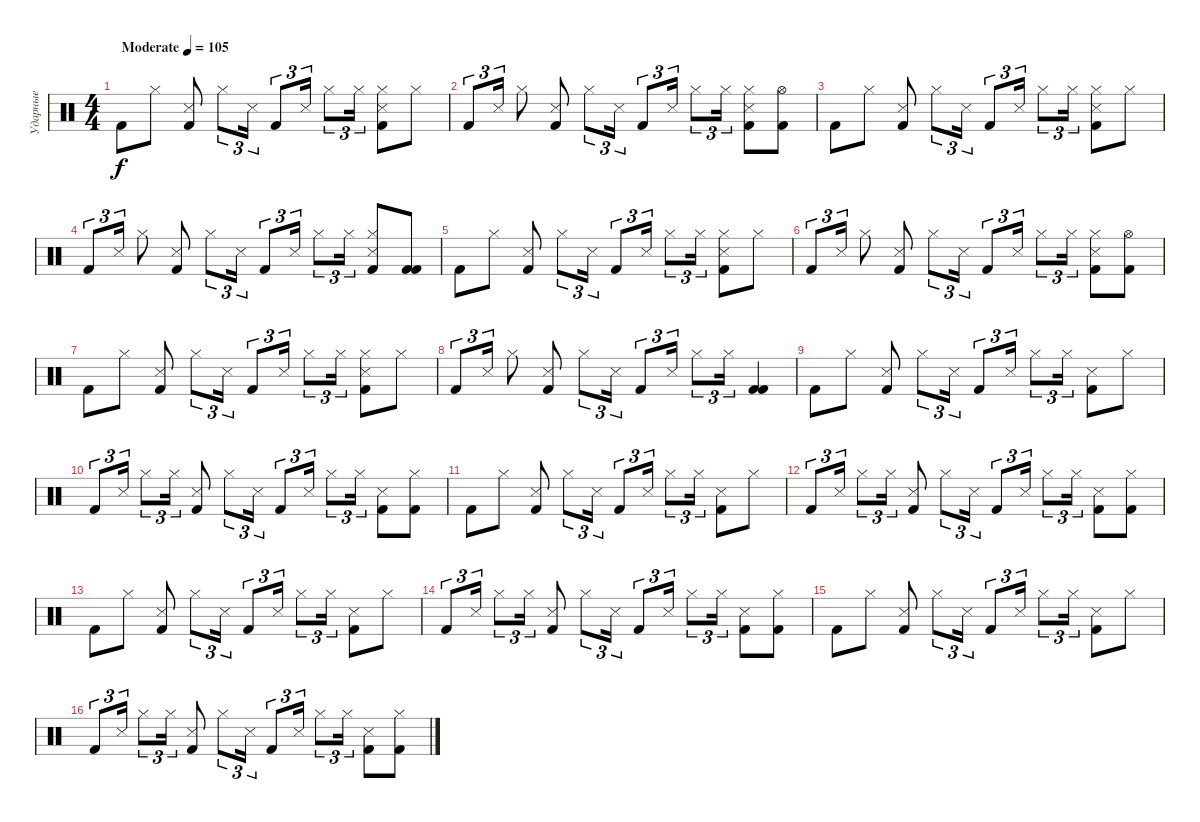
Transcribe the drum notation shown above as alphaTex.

\track ("Ударные" "Ударные") {instrument percussion}
\staff {score}
\articulation defaults
\ts (4 4)
\tempo (105 "Moderate")
\clef neutral
\ks c "Kick (hit) 2".8{dy f} "Hi-Hat (closed)".8
("Kick (hit) 2" "Snare (side stick) 3").8 "Hi-Hat (closed)".8{tu (3 2)} "Snare (side stick) 3".16{tu (3 2)} "Kick (hit) 2".8{tu (3 2)} "Snare (side stick) 3".16{tu (3 2)} "Hi-Hat (closed)".8{tu (3 2)} "Hi-Hat (closed)".16{tu (3 2)} ("Hi-Hat (closed)" "Kick (hit) 2" "Snare (side stick) 3").8 "Hi-Hat (closed)".8 |
"Kick (hit) 2".8{tu (3 2)} "Snare (side stick) 3".16{tu (3 2)} "Hi-Hat (closed)".8 ("Kick (hit) 2" "Snare (side stick) 3").8 "Hi-Hat (closed)".8{tu (3 2)} "Snare (side stick) 3".16{tu (3 2)} "Kick (hit) 2".8{tu (3 2)} "Snare (side stick) 3".16{tu (3 2)} "Hi-Hat (closed)".8{tu (3 2)} "Hi-Hat (closed)".16{tu (3 2)} ("Hi-Hat (closed)" "Kick (hit) 2" "Snare (side stick) 3").8 ("Hi-Hat (open)" "Kick (hit) 2").8 |
"Kick (hit) 2".8 "Hi-Hat (closed)".8 ("Kick (hit) 2" "Snare (side stick) 3").8 "Hi-Hat (closed)".8{tu (3 2)} "Snare (side stick) 3".16{tu (3 2)} "Kick (hit) 2".8{tu (3 2)} "Snare (side stick) 3".16{tu (3 2)} "Hi-Hat (closed)".8{tu (3 2)} "Hi-Hat (closed)".16{tu (3 2)} ("Hi-Hat (closed)" "Kick (hit) 2" "Snare (side stick) 3").8 "Hi-Hat (closed)".8 |
"Kick (hit) 2".8{tu (3 2)} "Snare (side stick) 3".16{tu (3 2)} "Hi-Hat (closed)".8 ("Kick (hit) 2" "Snare (side stick) 3").8 "Hi-Hat (closed)".8{tu (3 2)} "Snare (side stick) 3".16{tu (3 2)} "Kick (hit) 2".8{tu (3 2)} "Snare (side stick) 3".16{tu (3 2)} "Hi-Hat (closed)".8{tu (3 2)} "Hi-Hat (closed)".16{tu (3 2)} ("Hi-Hat (closed)" "Kick (hit) 2" "Snare (side stick) 3").8 ("Kick (hit) 2" "Kick (hit) 2").8 |
"Kick (hit) 2".8 "Hi-Hat (closed)".8 ("Kick (hit) 2" "Snare (side stick) 3").8 "Hi-Hat (closed)".8{tu (3 2)} "Snare (side stick) 3".16{tu (3 2)} "Kick (hit) 2".8{tu (3 2)} "Snare (side stick) 3".16{tu (3 2)} "Hi-Hat (closed)".8{tu (3 2)} "Hi-Hat (closed)".16{tu (3 2)} ("Hi-Hat (closed)" "Kick (hit) 2" "Snare (side stick) 3").8 "Hi-Hat (closed)".8 |
"Kick (hit) 2".8{tu (3 2)} "Snare (side stick) 3".16{tu (3 2)} "Hi-Hat (closed)".8 ("Kick (hit) 2" "Snare (side stick) 3").8 "Hi-Hat (closed)".8{tu (3 2)} "Snare (side stick) 3".16{tu (3 2)} "Kick (hit) 2".8{tu (3 2)} "Snare (side stick) 3".16{tu (3 2)} "Hi-Hat (closed)".8{tu (3 2)} "Hi-Hat (closed)".16{tu (3 2)} ("Hi-Hat (closed)" "Kick (hit) 2" "Snare (side stick) 3").8 ("Hi-Hat (open)" "Kick (hit) 2").8 |
"Kick (hit) 2".8 "Hi-Hat (closed)".8 ("Kick (hit) 2" "Snare (side stick) 3").8 "Hi-Hat (closed)".8{tu (3 2)} "Snare (side stick) 3".16{tu (3 2)} "Kick (hit) 2".8{tu (3 2)} "Snare (side stick) 3".16{tu (3 2)} "Hi-Hat (closed)".8{tu (3 2)} "Hi-Hat (closed)".16{tu (3 2)} ("Hi-Hat (closed)" "Kick (hit) 2" "Snare (side stick) 3").8 "Hi-Hat (closed)".8 |
"Kick (hit) 2".8{tu (3 2)} "Snare (side stick) 3".16{tu (3 2)} "Hi-Hat (closed)".8 ("Kick (hit) 2" "Snare (side stick) 3").8 "Hi-Hat (closed)".8{tu (3 2)} "Snare (side stick) 3".16{tu (3 2)} "Kick (hit) 2".8{tu (3 2)} "Snare (side stick) 3".16{tu (3 2)} "Hi-Hat (closed)".8{tu (3 2)} "Hi-Hat (closed)".16{tu (3 2)} ("Kick (hit) 2" "Kick (hit) 2").4 |
"Kick (hit) 2".8 "Hi-Hat (closed)".8 ("Kick (hit) 2" "Snare (side stick) 3").8 "Hi-Hat (closed)".8{tu (3 2)} "Snare (side stick) 3".16{tu (3 2)} "Kick (hit) 2".8{tu (3 2)} "Snare (side stick) 3".16{tu (3 2)} "Hi-Hat (closed)".8{tu (3 2)} "Hi-Hat (closed)".16{tu (3 2)} ("Kick (hit) 2" "Snare (side stick) 3").8 "Hi-Hat (closed)".8 |
"Kick (hit) 2".8{tu (3 2)} "Snare (side stick) 3".16{tu (3 2)} "Hi-Hat (closed)".8{tu (3 2)} "Hi-Hat (closed)".16{tu (3 2)} ("Kick (hit) 2" "Snare (side stick) 3").8 "Hi-Hat (closed)".8{tu (3 2)} "Snare (side stick) 3".16{tu (3 2)} "Kick (hit) 2".8{tu (3 2)} "Snare (side stick) 3".16{tu (3 2)} "Hi-Hat (closed)".8{tu (3 2)} "Hi-Hat (closed)".16{tu (3 2)} ("Kick (hit) 2" "Snare (side stick) 3").8 ("Hi-Hat (closed)" "Kick (hit) 2").8 |
"Kick (hit) 2".8 "Hi-Hat (closed)".8 ("Kick (hit) 2" "Snare (side stick) 3").8 "Hi-Hat (closed)".8{tu (3 2)} "Snare (side stick) 3".16{tu (3 2)} "Kick (hit) 2".8{tu (3 2)} "Snare (side stick) 3".16{tu (3 2)} "Hi-Hat (closed)".8{tu (3 2)} "Hi-Hat (closed)".16{tu (3 2)} ("Kick (hit) 2" "Snare (side stick) 3").8 "Hi-Hat (closed)".8 |
"Kick (hit) 2".8{tu (3 2)} "Snare (side stick) 3".16{tu (3 2)} "Hi-Hat (closed)".8{tu (3 2)} "Hi-Hat (closed)".16{tu (3 2)} ("Kick (hit) 2" "Snare (side stick) 3").8 "Hi-Hat (closed)".8{tu (3 2)} "Snare (side stick) 3".16{tu (3 2)} "Kick (hit) 2".8{tu (3 2)} "Snare (side stick) 3".16{tu (3 2)} "Hi-Hat (closed)".8{tu (3 2)} "Hi-Hat (closed)".16{tu (3 2)} ("Kick (hit) 2" "Snare (side stick) 3").8 ("Hi-Hat (closed)" "Kick (hit) 2").8 |
"Kick (hit) 2".8 "Hi-Hat (closed)".8 ("Kick (hit) 2" "Snare (side stick) 3").8 "Hi-Hat (closed)".8{tu (3 2)} "Snare (side stick) 3".16{tu (3 2)} "Kick (hit) 2".8{tu (3 2)} "Snare (side stick) 3".16{tu (3 2)} "Hi-Hat (closed)".8{tu (3 2)} "Hi-Hat (closed)".16{tu (3 2)} ("Kick (hit) 2" "Snare (side stick) 3").8 "Hi-Hat (closed)".8 |
"Kick (hit) 2".8{tu (3 2)} "Snare (side stick) 3".16{tu (3 2)} "Hi-Hat (closed)".8{tu (3 2)} "Hi-Hat (closed)".16{tu (3 2)} ("Kick (hit) 2" "Snare (side stick) 3").8 "Hi-Hat (closed)".8{tu (3 2)} "Snare (side stick) 3".16{tu (3 2)} "Kick (hit) 2".8{tu (3 2)} "Snare (side stick) 3".16{tu (3 2)} "Hi-Hat (closed)".8{tu (3 2)} "Hi-Hat (closed)".16{tu (3 2)} ("Kick (hit) 2" "Snare (side stick) 3").8 ("Hi-Hat (closed)" "Kick (hit) 2").8 |
"Kick (hit) 2".8 "Hi-Hat (closed)".8 ("Kick (hit) 2" "Snare (side stick) 3").8 "Hi-Hat (closed)".8{tu (3 2)} "Snare (side stick) 3".16{tu (3 2)} "Kick (hit) 2".8{tu (3 2)} "Snare (side stick) 3".16{tu (3 2)} "Hi-Hat (closed)".8{tu (3 2)} "Hi-Hat (closed)".16{tu (3 2)} ("Kick (hit) 2" "Snare (side stick) 3").8 "Hi-Hat (closed)".8 |
"Kick (hit) 2".8{tu (3 2)} "Snare (side stick) 3".16{tu (3 2)} "Hi-Hat (closed)".8{tu (3 2)} "Hi-Hat (closed)".16{tu (3 2)} ("Kick (hit) 2" "Snare (side stick) 3").8 "Hi-Hat (closed)".8{tu (3 2)} "Snare (side stick) 3".16{tu (3 2)} "Kick (hit) 2".8{tu (3 2)} "Snare (side stick) 3".16{tu (3 2)} "Hi-Hat (closed)".8{tu (3 2)} "Hi-Hat (closed)".16{tu (3 2)} ("Kick (hit) 2" "Snare (side stick) 3").8 ("Hi-Hat (closed)" "Kick (hit) 2").8
